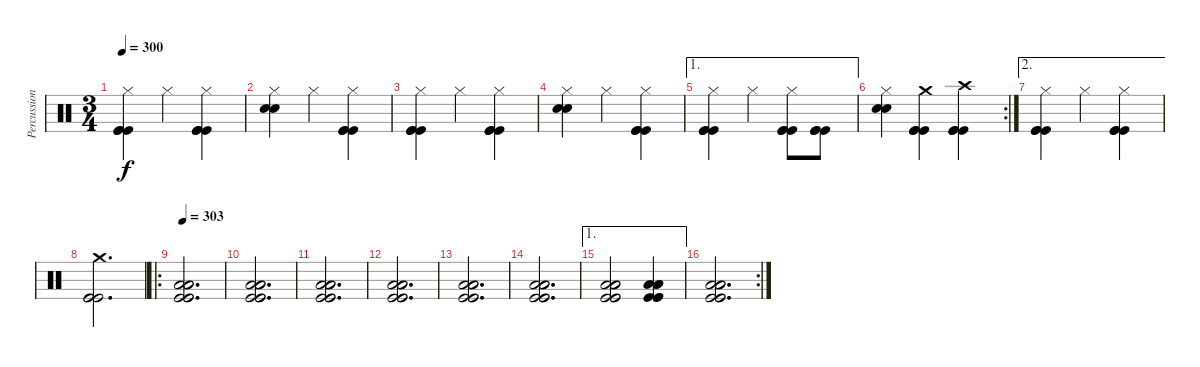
\track ("Percussion" "Percussion") {instrument percussion}
\staff {score}
\articulation defaults
\ts (3 4)
\tempo 300
\clef neutral
\ks c
("Hi-Hat (closed)" "Kick (hit)" "Kick (hit)" "Kick (hit)").4{dy f} "Hi-Hat (closed)".4 ("Hi-Hat (closed)" "Kick (hit)" "Kick (hit)" "Kick (hit)").4 |
("Hi-Hat (closed)" "Electric Snare (hit)" "Snare (hit) 2").4 "Hi-Hat (closed)".4 ("Hi-Hat (closed)" "Kick (hit)" "Kick (hit)" "Kick (hit)").4 |
("Hi-Hat (closed)" "Kick (hit)" "Kick (hit)" "Kick (hit)").4 "Hi-Hat (closed)".4 ("Hi-Hat (closed)" "Kick (hit)" "Kick (hit)" "Kick (hit)").4 |
("Hi-Hat (closed)" "Electric Snare (hit)" "Snare (hit) 2").4 "Hi-Hat (closed)".4 ("Hi-Hat (closed)" "Kick (hit)" "Kick (hit)" "Kick (hit)").4 |
\ae 1
("Hi-Hat (closed)" "Kick (hit)" "Kick (hit)" "Kick (hit)").4 "Hi-Hat (closed)".4 ("Hi-Hat (closed)" "Kick (hit)" "Kick (hit)" "Kick (hit)").8 ("Kick (hit)" "Kick (hit)" "Kick (hit)").8 |
\rc 2
("Hi-Hat (closed)" "Snare (hit) 2" "Electric Snare (hit)").4 ("Crash medium (hit)" "Kick (hit)" "Kick (hit)" "Kick (hit)").4 ("Crash high (hit)" "Kick (hit)" "Kick (hit)" "Kick (hit)").4 |
\ae 2
("Hi-Hat (closed)" "Kick (hit)" "Kick (hit)" "Kick (hit)").4 "Hi-Hat (closed)".4 ("Hi-Hat (closed)" "Kick (hit)" "Kick (hit)" "Kick (hit)").4 |
("Crash medium (hit)" "Kick (hit)" "Kick (hit)" "Kick (hit)").2{d} |
\ro
\tempo 303
("Low Floor Tom (hit)" "Low Floor Tom (hit)" "Low Floor Tom (hit)" "Kick (hit)" "Kick (hit)" "Kick (hit)").2{d} |
("Low Floor Tom (hit)" "Low Floor Tom (hit)" "Low Floor Tom (hit)" "Kick (hit)" "Kick (hit)" "Kick (hit)").2{d} |
("Low Floor Tom (hit)" "Low Floor Tom (hit)" "Low Floor Tom (hit)" "Kick (hit)" "Kick (hit)" "Kick (hit)").2{d} |
("Low Floor Tom (hit)" "Low Floor Tom (hit)" "Low Floor Tom (hit)" "Kick (hit)" "Kick (hit)" "Kick (hit)").2{d} |
("Low Floor Tom (hit)" "Low Floor Tom (hit)" "Low Floor Tom (hit)" "Kick (hit)" "Kick (hit)" "Kick (hit)").2{d} |
("Low Floor Tom (hit)" "Low Floor Tom (hit)" "Low Floor Tom (hit)" "Kick (hit)" "Kick (hit)" "Kick (hit)").2{d} |
\ae 1
("Low Floor Tom (hit)" "Low Floor Tom (hit)" "Low Floor Tom (hit)" "Kick (hit)" "Kick (hit)" "Kick (hit)").2 ("Low Floor Tom (hit)" "Low Floor Tom (hit)" "Low Floor Tom (hit)" "Kick (hit)" "Kick (hit)" "Kick (hit)").4 |
\rc 2
("Low Floor Tom (hit)" "Low Floor Tom (hit)" "Low Floor Tom (hit)" "Kick (hit)" "Kick (hit)" "Kick (hit)").2{d}
